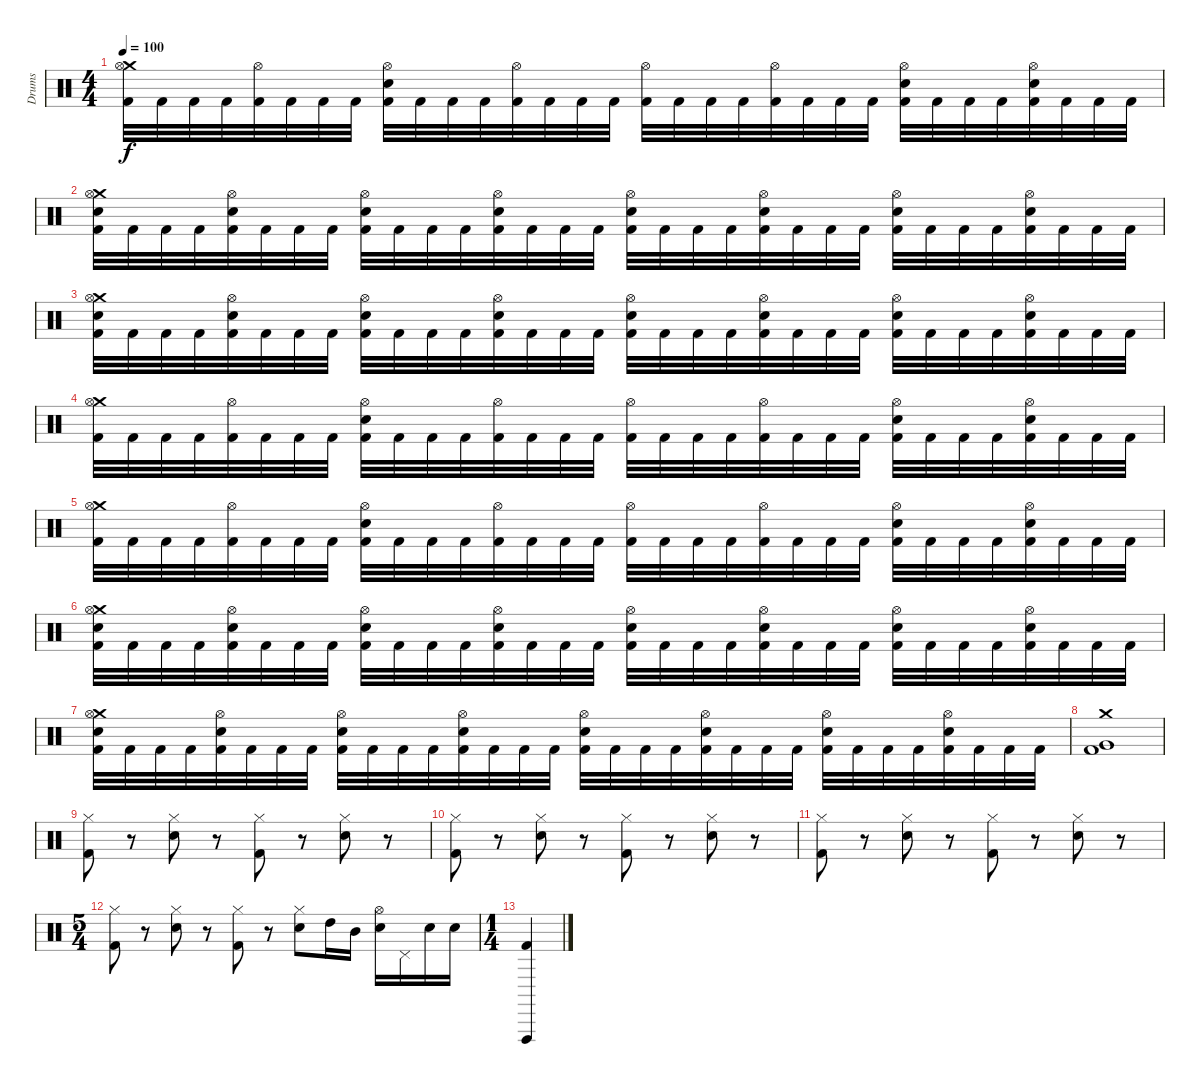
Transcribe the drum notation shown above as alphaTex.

\track ("Drums" "Drums") {instrument percussion}
\staff {score}
\articulation defaults
\ts (4 4)
\tempo 100
\clef neutral
\ks c
("Crash medium (hit)" "Hi-Hat (open)" "Kick (hit) 2").32{dy f} "Kick (hit) 2".32 "Kick (hit) 2".32 "Kick (hit) 2".32 ("Hi-Hat (open)" "Kick (hit) 2").32 "Kick (hit) 2".32 "Kick (hit) 2".32 "Kick (hit) 2".32 ("Hi-Hat (open)" "Electric Snare (hit)" "Kick (hit) 2").32 "Kick (hit) 2".32 "Kick (hit) 2".32 "Kick (hit) 2".32 ("Hi-Hat (open)" "Kick (hit) 2").32 "Kick (hit) 2".32 "Kick (hit) 2".32 "Kick (hit) 2".32 ("Hi-Hat (open)" "Kick (hit) 2").32 "Kick (hit) 2".32 "Kick (hit) 2".32 "Kick (hit) 2".32 ("Hi-Hat (open)" "Kick (hit) 2").32 "Kick (hit) 2".32 "Kick (hit) 2".32 "Kick (hit) 2".32 ("Hi-Hat (open)" "Electric Snare (hit)" "Kick (hit) 2").32 "Kick (hit) 2".32 "Kick (hit) 2".32 "Kick (hit) 2".32 ("Electric Snare (hit)" "Hi-Hat (open)" "Kick (hit) 2").32 "Kick (hit) 2".32 "Kick (hit) 2".32 "Kick (hit) 2".32 |
("Crash medium (hit)" "Hi-Hat (open)" "Electric Snare (hit)" "Kick (hit) 2").32 "Kick (hit) 2".32 "Kick (hit) 2".32 "Kick (hit) 2".32 ("Hi-Hat (open)" "Electric Snare (hit)" "Kick (hit) 2").32 "Kick (hit) 2".32 "Kick (hit) 2".32 "Kick (hit) 2".32 ("Hi-Hat (open)" "Electric Snare (hit)" "Kick (hit) 2").32 "Kick (hit) 2".32 "Kick (hit) 2".32 "Kick (hit) 2".32 ("Hi-Hat (open)" "Electric Snare (hit)" "Kick (hit) 2").32 "Kick (hit) 2".32 "Kick (hit) 2".32 "Kick (hit) 2".32 ("Hi-Hat (open)" "Electric Snare (hit)" "Kick (hit) 2").32 "Kick (hit) 2".32 "Kick (hit) 2".32 "Kick (hit) 2".32 ("Hi-Hat (open)" "Electric Snare (hit)" "Kick (hit) 2").32 "Kick (hit) 2".32 "Kick (hit) 2".32 "Kick (hit) 2".32 ("Hi-Hat (open)" "Electric Snare (hit)" "Kick (hit) 2").32 "Kick (hit) 2".32 "Kick (hit) 2".32 "Kick (hit) 2".32 ("Electric Snare (hit)" "Hi-Hat (open)" "Kick (hit) 2").32 "Kick (hit) 2".32 "Kick (hit) 2".32 "Kick (hit) 2".32 |
("Crash medium (hit)" "Hi-Hat (open)" "Electric Snare (hit)" "Kick (hit) 2").32 "Kick (hit) 2".32 "Kick (hit) 2".32 "Kick (hit) 2".32 ("Hi-Hat (open)" "Electric Snare (hit)" "Kick (hit) 2").32 "Kick (hit) 2".32 "Kick (hit) 2".32 "Kick (hit) 2".32 ("Hi-Hat (open)" "Electric Snare (hit)" "Kick (hit) 2").32 "Kick (hit) 2".32 "Kick (hit) 2".32 "Kick (hit) 2".32 ("Hi-Hat (open)" "Electric Snare (hit)" "Kick (hit) 2").32 "Kick (hit) 2".32 "Kick (hit) 2".32 "Kick (hit) 2".32 ("Hi-Hat (open)" "Electric Snare (hit)" "Kick (hit) 2").32 "Kick (hit) 2".32 "Kick (hit) 2".32 "Kick (hit) 2".32 ("Hi-Hat (open)" "Electric Snare (hit)" "Kick (hit) 2").32 "Kick (hit) 2".32 "Kick (hit) 2".32 "Kick (hit) 2".32 ("Hi-Hat (open)" "Electric Snare (hit)" "Kick (hit) 2").32 "Kick (hit) 2".32 "Kick (hit) 2".32 "Kick (hit) 2".32 ("Electric Snare (hit)" "Hi-Hat (open)" "Kick (hit) 2").32 "Kick (hit) 2".32 "Kick (hit) 2".32 "Kick (hit) 2".32 |
("Crash medium (hit)" "Hi-Hat (open)" "Kick (hit) 2").32 "Kick (hit) 2".32 "Kick (hit) 2".32 "Kick (hit) 2".32 ("Hi-Hat (open)" "Kick (hit) 2").32 "Kick (hit) 2".32 "Kick (hit) 2".32 "Kick (hit) 2".32 ("Hi-Hat (open)" "Electric Snare (hit)" "Kick (hit) 2").32 "Kick (hit) 2".32 "Kick (hit) 2".32 "Kick (hit) 2".32 ("Hi-Hat (open)" "Kick (hit) 2").32 "Kick (hit) 2".32 "Kick (hit) 2".32 "Kick (hit) 2".32 ("Hi-Hat (open)" "Kick (hit) 2").32 "Kick (hit) 2".32 "Kick (hit) 2".32 "Kick (hit) 2".32 ("Hi-Hat (open)" "Kick (hit) 2").32 "Kick (hit) 2".32 "Kick (hit) 2".32 "Kick (hit) 2".32 ("Hi-Hat (open)" "Electric Snare (hit)" "Kick (hit) 2").32 "Kick (hit) 2".32 "Kick (hit) 2".32 "Kick (hit) 2".32 ("Electric Snare (hit)" "Hi-Hat (open)" "Kick (hit) 2").32 "Kick (hit) 2".32 "Kick (hit) 2".32 "Kick (hit) 2".32 |
("Crash medium (hit)" "Hi-Hat (open)" "Kick (hit) 2").32 "Kick (hit) 2".32 "Kick (hit) 2".32 "Kick (hit) 2".32 ("Hi-Hat (open)" "Kick (hit) 2").32 "Kick (hit) 2".32 "Kick (hit) 2".32 "Kick (hit) 2".32 ("Hi-Hat (open)" "Electric Snare (hit)" "Kick (hit) 2").32 "Kick (hit) 2".32 "Kick (hit) 2".32 "Kick (hit) 2".32 ("Hi-Hat (open)" "Kick (hit) 2").32 "Kick (hit) 2".32 "Kick (hit) 2".32 "Kick (hit) 2".32 ("Hi-Hat (open)" "Kick (hit) 2").32 "Kick (hit) 2".32 "Kick (hit) 2".32 "Kick (hit) 2".32 ("Hi-Hat (open)" "Kick (hit) 2").32 "Kick (hit) 2".32 "Kick (hit) 2".32 "Kick (hit) 2".32 ("Hi-Hat (open)" "Electric Snare (hit)" "Kick (hit) 2").32 "Kick (hit) 2".32 "Kick (hit) 2".32 "Kick (hit) 2".32 ("Electric Snare (hit)" "Hi-Hat (open)" "Kick (hit) 2").32 "Kick (hit) 2".32 "Kick (hit) 2".32 "Kick (hit) 2".32 |
("Crash medium (hit)" "Hi-Hat (open)" "Electric Snare (hit)" "Kick (hit) 2").32 "Kick (hit) 2".32 "Kick (hit) 2".32 "Kick (hit) 2".32 ("Hi-Hat (open)" "Electric Snare (hit)" "Kick (hit) 2").32 "Kick (hit) 2".32 "Kick (hit) 2".32 "Kick (hit) 2".32 ("Hi-Hat (open)" "Electric Snare (hit)" "Kick (hit) 2").32 "Kick (hit) 2".32 "Kick (hit) 2".32 "Kick (hit) 2".32 ("Hi-Hat (open)" "Electric Snare (hit)" "Kick (hit) 2").32 "Kick (hit) 2".32 "Kick (hit) 2".32 "Kick (hit) 2".32 ("Hi-Hat (open)" "Electric Snare (hit)" "Kick (hit) 2").32 "Kick (hit) 2".32 "Kick (hit) 2".32 "Kick (hit) 2".32 ("Hi-Hat (open)" "Electric Snare (hit)" "Kick (hit) 2").32 "Kick (hit) 2".32 "Kick (hit) 2".32 "Kick (hit) 2".32 ("Hi-Hat (open)" "Electric Snare (hit)" "Kick (hit) 2").32 "Kick (hit) 2".32 "Kick (hit) 2".32 "Kick (hit) 2".32 ("Electric Snare (hit)" "Hi-Hat (open)" "Kick (hit) 2").32 "Kick (hit) 2".32 "Kick (hit) 2".32 "Kick (hit) 2".32 |
("Crash medium (hit)" "Hi-Hat (open)" "Electric Snare (hit)" "Kick (hit) 2").32 "Kick (hit) 2".32 "Kick (hit) 2".32 "Kick (hit) 2".32 ("Hi-Hat (open)" "Electric Snare (hit)" "Kick (hit) 2").32 "Kick (hit) 2".32 "Kick (hit) 2".32 "Kick (hit) 2".32 ("Hi-Hat (open)" "Electric Snare (hit)" "Kick (hit) 2").32 "Kick (hit) 2".32 "Kick (hit) 2".32 "Kick (hit) 2".32 ("Hi-Hat (open)" "Electric Snare (hit)" "Kick (hit) 2").32 "Kick (hit) 2".32 "Kick (hit) 2".32 "Kick (hit) 2".32 ("Hi-Hat (open)" "Electric Snare (hit)" "Kick (hit) 2").32 "Kick (hit) 2".32 "Kick (hit) 2".32 "Kick (hit) 2".32 ("Hi-Hat (open)" "Electric Snare (hit)" "Kick (hit) 2").32 "Kick (hit) 2".32 "Kick (hit) 2".32 "Kick (hit) 2".32 ("Hi-Hat (open)" "Electric Snare (hit)" "Kick (hit) 2").32 "Kick (hit) 2".32 "Kick (hit) 2".32 "Kick (hit) 2".32 ("Electric Snare (hit)" "Hi-Hat (open)" "Kick (hit) 2").32 "Kick (hit) 2".32 "Kick (hit) 2".32 "Kick (hit) 2".32 |
("Kick (hit) 2" "Very Low Tom (hit)" "Crash medium (hit)").1 |
("Hi-Hat (closed)" "Kick (hit) 2").8 r.8 ("Hi-Hat (closed)" "Electric Snare (hit)").8 r.8 ("Hi-Hat (closed)" "Kick (hit) 2").8 r.8 ("Hi-Hat (closed)" "Electric Snare (hit)").8 r.8 |
("Hi-Hat (closed)" "Kick (hit) 2").8 r.8 ("Hi-Hat (closed)" "Electric Snare (hit)").8 r.8 ("Hi-Hat (closed)" "Kick (hit) 2").8 r.8 ("Hi-Hat (closed)" "Electric Snare (hit)").8 r.8 |
("Hi-Hat (closed)" "Kick (hit) 2").8 r.8 ("Hi-Hat (closed)" "Electric Snare (hit)").8 r.8 ("Hi-Hat (closed)" "Kick (hit) 2").8 r.8 ("Hi-Hat (closed)" "Electric Snare (hit)").8 r.8 |
\ts (5 4)
("Hi-Hat (closed)" "Kick (hit) 2").8 r.8 ("Hi-Hat (closed)" "Electric Snare (hit)").8 r.8 ("Hi-Hat (closed)" "Kick (hit) 2").8 r.8 ("Hi-Hat (closed)" "Electric Snare (hit)").8 "High Tom (hit)".16 "Mid Tom (hit)".16 ("Hi-Hat (open)" "Electric Snare (hit)").16 "Pedal Hi-Hat (hit)".16 "Electric Snare (hit)".16 "Electric Snare (hit)".16 |
\ts (1 4)
("Vibraslap (hit)" "Kick (hit) 2").4
